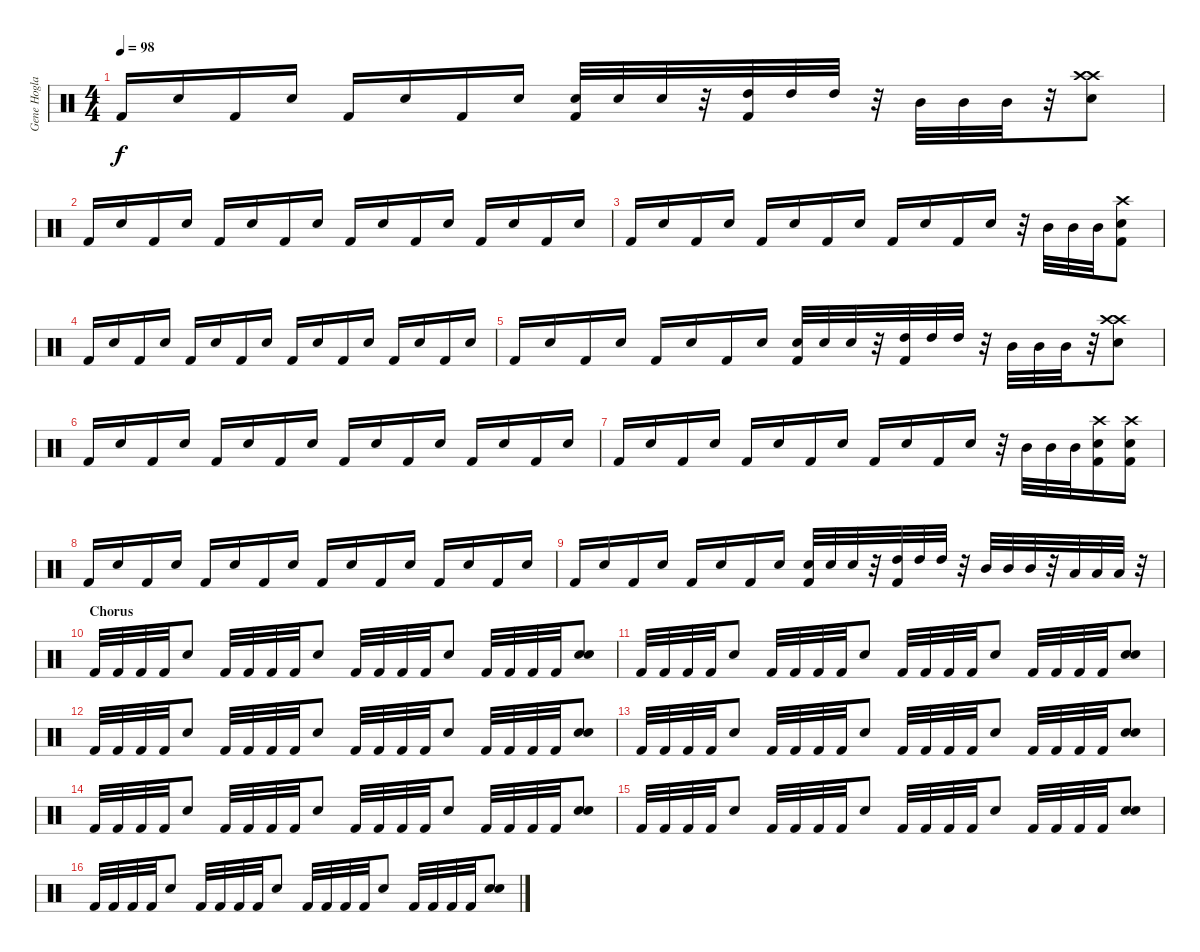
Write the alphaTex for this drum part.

\track ("Gene Hoglan" "Gene Hogla") {instrument percussion}
\staff {score}
\articulation defaults
\ts (4 4)
\tempo 98
\clef neutral
\ks c "Kick (hit) 2".16{dy f} "Electric Snare (hit)".16 "Kick (hit) 2".16 "Electric Snare (hit)".16 "Kick (hit) 2".16 "Electric Snare (hit)".16 "Kick (hit) 2".16 "Electric Snare (hit)".16
("Kick (hit) 2" "Electric Snare (hit)").32 "Electric Snare (hit)".32 "Electric Snare (hit)".32 r.32 ("Kick (hit) 2" "High Tom (hit)").32 "High Tom (hit)".32 "High Tom (hit)".32 r.32 "Mid Tom (hit)".32 "Mid Tom (hit)".32 "Mid Tom (hit)".32 r.32 ("Electric Snare (hit)" "Crash high (hit)" "Crash high (hit)").8 |
"Kick (hit) 2".16 "Electric Snare (hit)".16 "Kick (hit) 2".16 "Electric Snare (hit)".16 "Kick (hit) 2".16 "Electric Snare (hit)".16 "Kick (hit) 2".16 "Electric Snare (hit)".16 "Kick (hit) 2".16 "Electric Snare (hit)".16 "Kick (hit) 2".16 "Electric Snare (hit)".16 "Kick (hit) 2".16 "Electric Snare (hit)".16 "Kick (hit) 2".16 "Electric Snare (hit)".16 |
"Kick (hit) 2".16 "Electric Snare (hit)".16 "Kick (hit) 2".16 "Electric Snare (hit)".16 "Kick (hit) 2".16 "Electric Snare (hit)".16 "Kick (hit) 2".16 "Electric Snare (hit)".16 "Kick (hit) 2".16 "Electric Snare (hit)".16 "Kick (hit) 2".16 "Electric Snare (hit)".16 r.32 "Mid Tom (hit)".32 "Mid Tom (hit)".32 "Mid Tom (hit)".32 ("Kick (hit) 2" "Crash high (hit)" "Electric Snare (hit)").8 |
"Kick (hit) 2".16 "Electric Snare (hit)".16 "Kick (hit) 2".16 "Electric Snare (hit)".16 "Kick (hit) 2".16 "Electric Snare (hit)".16 "Kick (hit) 2".16 "Electric Snare (hit)".16 "Kick (hit) 2".16 "Electric Snare (hit)".16 "Kick (hit) 2".16 "Electric Snare (hit)".16 "Kick (hit) 2".16 "Electric Snare (hit)".16 "Kick (hit) 2".16 "Electric Snare (hit)".16 |
"Kick (hit) 2".16 "Electric Snare (hit)".16 "Kick (hit) 2".16 "Electric Snare (hit)".16 "Kick (hit) 2".16 "Electric Snare (hit)".16 "Kick (hit) 2".16 "Electric Snare (hit)".16 ("Kick (hit) 2" "Electric Snare (hit)").32 "Electric Snare (hit)".32 "Electric Snare (hit)".32 r.32 ("Kick (hit) 2" "High Tom (hit)").32 "High Tom (hit)".32 "High Tom (hit)".32 r.32 "Mid Tom (hit)".32 "Mid Tom (hit)".32 "Mid Tom (hit)".32 r.32 ("Electric Snare (hit)" "Crash high (hit)" "Crash high (hit)").8 |
"Kick (hit) 2".16 "Electric Snare (hit)".16 "Kick (hit) 2".16 "Electric Snare (hit)".16 "Kick (hit) 2".16 "Electric Snare (hit)".16 "Kick (hit) 2".16 "Electric Snare (hit)".16 "Kick (hit) 2".16 "Electric Snare (hit)".16 "Kick (hit) 2".16 "Electric Snare (hit)".16 "Kick (hit) 2".16 "Electric Snare (hit)".16 "Kick (hit) 2".16 "Electric Snare (hit)".16 |
"Kick (hit) 2".16 "Electric Snare (hit)".16 "Kick (hit) 2".16 "Electric Snare (hit)".16 "Kick (hit) 2".16 "Electric Snare (hit)".16 "Kick (hit) 2".16 "Electric Snare (hit)".16 "Kick (hit) 2".16 "Electric Snare (hit)".16 "Kick (hit) 2".16 "Electric Snare (hit)".16 r.32 "Mid Tom (hit)".32 "Mid Tom (hit)".32 "Mid Tom (hit)".32 ("Kick (hit) 2" "Crash high (hit)" "Electric Snare (hit)").16 ("Kick (hit) 2" "Crash high (hit)" "Electric Snare (hit)").16 |
"Kick (hit) 2".16 "Electric Snare (hit)".16 "Kick (hit) 2".16 "Electric Snare (hit)".16 "Kick (hit) 2".16 "Electric Snare (hit)".16 "Kick (hit) 2".16 "Electric Snare (hit)".16 "Kick (hit) 2".16 "Electric Snare (hit)".16 "Kick (hit) 2".16 "Electric Snare (hit)".16 "Kick (hit) 2".16 "Electric Snare (hit)".16 "Kick (hit) 2".16 "Electric Snare (hit)".16 |
"Kick (hit) 2".16 "Electric Snare (hit)".16 "Kick (hit) 2".16 "Electric Snare (hit)".16 "Kick (hit) 2".16 "Electric Snare (hit)".16 "Kick (hit) 2".16 "Electric Snare (hit)".16 ("Kick (hit) 2" "Electric Snare (hit)").32 "Electric Snare (hit)".32 "Electric Snare (hit)".32 r.32 ("Kick (hit) 2" "High Tom (hit)").32 "High Tom (hit)".32 "High Tom (hit)".32 r.32 "Mid Tom (hit)".32 "Mid Tom (hit)".32 "Mid Tom (hit)".32 r.32 "Low Floor Tom (hit)".32 "Low Floor Tom (hit)".32 "Low Floor Tom (hit)".32 r.32 |
\section ("" "Chorus")
"Kick (hit) 2".32 "Kick (hit) 2".32 "Kick (hit) 2".32 "Kick (hit) 2".32 "Electric Snare (hit)".8 "Kick (hit) 2".32 "Kick (hit) 2".32 "Kick (hit) 2".32 "Kick (hit) 2".32 "Electric Snare (hit)".8 "Kick (hit) 2".32 "Kick (hit) 2".32 "Kick (hit) 2".32 "Kick (hit) 2".32 "Electric Snare (hit)".8 "Kick (hit) 2".32 "Kick (hit) 2".32 "Kick (hit) 2".32 "Kick (hit) 2".32 ("Electric Snare (hit)" "Snare (hit)").8 |
"Kick (hit) 2".32 "Kick (hit) 2".32 "Kick (hit) 2".32 "Kick (hit) 2".32 "Electric Snare (hit)".8 "Kick (hit) 2".32 "Kick (hit) 2".32 "Kick (hit) 2".32 "Kick (hit) 2".32 "Electric Snare (hit)".8 "Kick (hit) 2".32 "Kick (hit) 2".32 "Kick (hit) 2".32 "Kick (hit) 2".32 "Electric Snare (hit)".8 "Kick (hit) 2".32 "Kick (hit) 2".32 "Kick (hit) 2".32 "Kick (hit) 2".32 ("Electric Snare (hit)" "Snare (hit)").8 |
"Kick (hit) 2".32 "Kick (hit) 2".32 "Kick (hit) 2".32 "Kick (hit) 2".32 "Electric Snare (hit)".8 "Kick (hit) 2".32 "Kick (hit) 2".32 "Kick (hit) 2".32 "Kick (hit) 2".32 "Electric Snare (hit)".8 "Kick (hit) 2".32 "Kick (hit) 2".32 "Kick (hit) 2".32 "Kick (hit) 2".32 "Electric Snare (hit)".8 "Kick (hit) 2".32 "Kick (hit) 2".32 "Kick (hit) 2".32 "Kick (hit) 2".32 ("Electric Snare (hit)" "Snare (hit)").8 |
"Kick (hit) 2".32 "Kick (hit) 2".32 "Kick (hit) 2".32 "Kick (hit) 2".32 "Electric Snare (hit)".8 "Kick (hit) 2".32 "Kick (hit) 2".32 "Kick (hit) 2".32 "Kick (hit) 2".32 "Electric Snare (hit)".8 "Kick (hit) 2".32 "Kick (hit) 2".32 "Kick (hit) 2".32 "Kick (hit) 2".32 "Electric Snare (hit)".8 "Kick (hit) 2".32 "Kick (hit) 2".32 "Kick (hit) 2".32 "Kick (hit) 2".32 ("Electric Snare (hit)" "Snare (hit)").8 |
"Kick (hit) 2".32 "Kick (hit) 2".32 "Kick (hit) 2".32 "Kick (hit) 2".32 "Electric Snare (hit)".8 "Kick (hit) 2".32 "Kick (hit) 2".32 "Kick (hit) 2".32 "Kick (hit) 2".32 "Electric Snare (hit)".8 "Kick (hit) 2".32 "Kick (hit) 2".32 "Kick (hit) 2".32 "Kick (hit) 2".32 "Electric Snare (hit)".8 "Kick (hit) 2".32 "Kick (hit) 2".32 "Kick (hit) 2".32 "Kick (hit) 2".32 ("Electric Snare (hit)" "Snare (hit)").8 |
"Kick (hit) 2".32 "Kick (hit) 2".32 "Kick (hit) 2".32 "Kick (hit) 2".32 "Electric Snare (hit)".8 "Kick (hit) 2".32 "Kick (hit) 2".32 "Kick (hit) 2".32 "Kick (hit) 2".32 "Electric Snare (hit)".8 "Kick (hit) 2".32 "Kick (hit) 2".32 "Kick (hit) 2".32 "Kick (hit) 2".32 "Electric Snare (hit)".8 "Kick (hit) 2".32 "Kick (hit) 2".32 "Kick (hit) 2".32 "Kick (hit) 2".32 ("Electric Snare (hit)" "Snare (hit)").8 |
"Kick (hit) 2".32 "Kick (hit) 2".32 "Kick (hit) 2".32 "Kick (hit) 2".32 "Electric Snare (hit)".8 "Kick (hit) 2".32 "Kick (hit) 2".32 "Kick (hit) 2".32 "Kick (hit) 2".32 "Electric Snare (hit)".8 "Kick (hit) 2".32 "Kick (hit) 2".32 "Kick (hit) 2".32 "Kick (hit) 2".32 "Electric Snare (hit)".8 "Kick (hit) 2".32 "Kick (hit) 2".32 "Kick (hit) 2".32 "Kick (hit) 2".32 ("Electric Snare (hit)" "Snare (hit)").8
